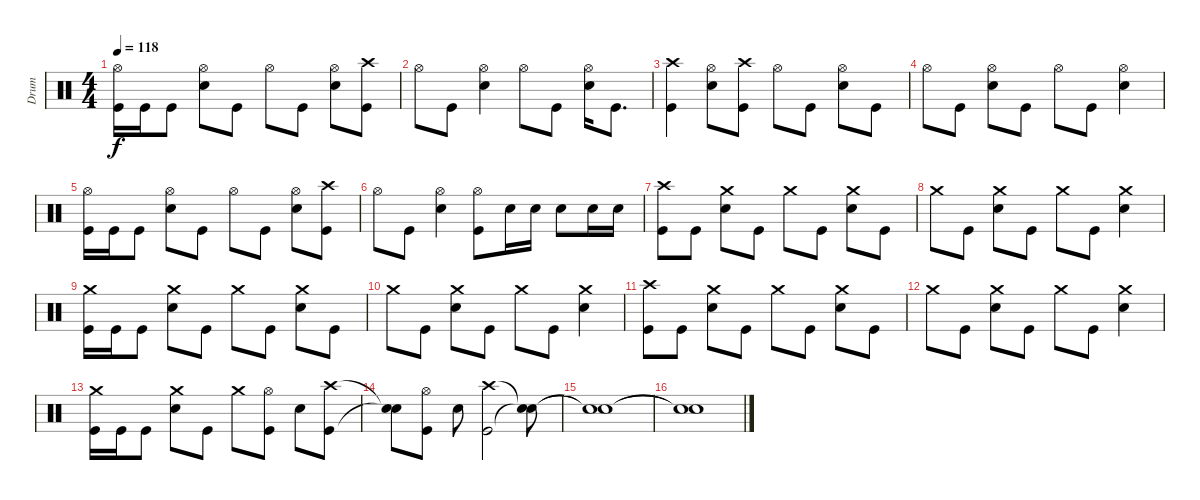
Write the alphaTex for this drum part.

\track ("Drum" "Drum") {instrument percussion}
\staff {score}
\articulation defaults
\ts (4 4)
\tempo 118
\clef neutral
\ks c
("Kick (hit)" "Hi-Hat (open)").16{dy f} "Kick (hit)".16 "Kick (hit)".8 ("Hi-Hat (open)" "Snare (hit) 2").8 "Kick (hit)".8 "Hi-Hat (open)".8 "Kick (hit)".8 ("Hi-Hat (open)" "Snare (hit) 2").8 ("Kick (hit)" "Crash high (hit)").8 |
"Hi-Hat (open)".8 "Kick (hit)".8 ("Hi-Hat (open)" "Snare (hit) 2").4 "Hi-Hat (open)".8 "Kick (hit)".8 ("Hi-Hat (open)" "Snare (hit) 2").16 "Kick (hit)".8{d} |
("Kick (hit)" "Crash high (hit)").4 ("Hi-Hat (open)" "Snare (hit) 2").8 ("Kick (hit)" "Crash high (hit)").8 "Hi-Hat (open)".8 "Kick (hit)".8 ("Hi-Hat (open)" "Snare (hit) 2").8 "Kick (hit)".8 |
"Hi-Hat (open)".8 "Kick (hit)".8 ("Hi-Hat (open)" "Snare (hit) 2").8 "Kick (hit)".8 "Hi-Hat (open)".8 "Kick (hit)".8 ("Hi-Hat (open)" "Snare (hit) 2").4 |
("Kick (hit)" "Hi-Hat (open)").16 "Kick (hit)".16 "Kick (hit)".8 ("Hi-Hat (open)" "Snare (hit) 2").8 "Kick (hit)".8 "Hi-Hat (open)".8 "Kick (hit)".8 ("Hi-Hat (open)" "Snare (hit) 2").8 ("Kick (hit)" "Crash high (hit)").8 |
"Hi-Hat (open)".8 "Kick (hit)".8 ("Hi-Hat (open)" "Snare (hit) 2").4 ("Kick (hit)" "Hi-Hat (open)").8 "Snare (hit) 2".16 "Snare (hit) 2".16 "Snare (hit) 2".8 "Snare (hit) 2".16 "Snare (hit) 2".16 |
("Kick (hit)" "Crash high (hit)").8 "Kick (hit)".8 ("Crash medium (hit)" "Snare (hit) 2").8 "Kick (hit)".8 "Crash medium (hit)".8 "Kick (hit)".8 ("Crash medium (hit)" "Snare (hit) 2").8 "Kick (hit)".8 |
"Crash medium (hit)".8 "Kick (hit)".8 ("Crash medium (hit)" "Snare (hit) 2").8 "Kick (hit)".8 "Crash medium (hit)".8 "Kick (hit)".8 ("Crash medium (hit)" "Snare (hit) 2").4 |
("Kick (hit)" "Crash medium (hit)").16 "Kick (hit)".16 "Kick (hit)".8 ("Crash medium (hit)" "Snare (hit) 2").8 "Kick (hit)".8 "Crash medium (hit)".8 "Kick (hit)".8 ("Crash medium (hit)" "Snare (hit) 2").8 "Kick (hit)".8 |
"Crash medium (hit)".8 "Kick (hit)".8 ("Crash medium (hit)" "Snare (hit) 2").8 "Kick (hit)".8 "Crash medium (hit)".8 "Kick (hit)".8 ("Crash medium (hit)" "Snare (hit) 2").4 |
("Kick (hit)" "Crash high (hit)").8 "Kick (hit)".8 ("Crash medium (hit)" "Snare (hit) 2").8 "Kick (hit)".8 "Crash medium (hit)".8 "Kick (hit)".8 ("Crash medium (hit)" "Snare (hit) 2").8 "Kick (hit)".8 |
"Crash medium (hit)".8 "Kick (hit)".8 ("Crash medium (hit)" "Snare (hit) 2").8 "Kick (hit)".8 "Crash medium (hit)".8 "Kick (hit)".8 ("Crash medium (hit)" "Snare (hit) 2").4 |
("Kick (hit)" "Crash medium (hit)").16 "Kick (hit)".16 "Kick (hit)".8 ("Crash medium (hit)" "Snare (hit) 2").8 "Kick (hit)".8 "Crash medium (hit)".8 ("Kick (hit)" "Hi-Hat (open)").8 "Snare (hit) 2".8 ("Kick (hit)" "Crash high (hit)").8 |
("Snare (hit)"{t} "Snare (hit)"{t}).8 ("Kick (hit)" "Hi-Hat (open)").8 "Snare (hit) 2".8 ("Kick (hit)" "Crash high (hit)").2 ("Snare (hit)"{t} "Snare (hit)"{t}).8 |
("Snare (hit)"{t} "Snare (hit)"{t}).1 |
("Snare (hit)"{t} "Snare (hit)"{t}).1
